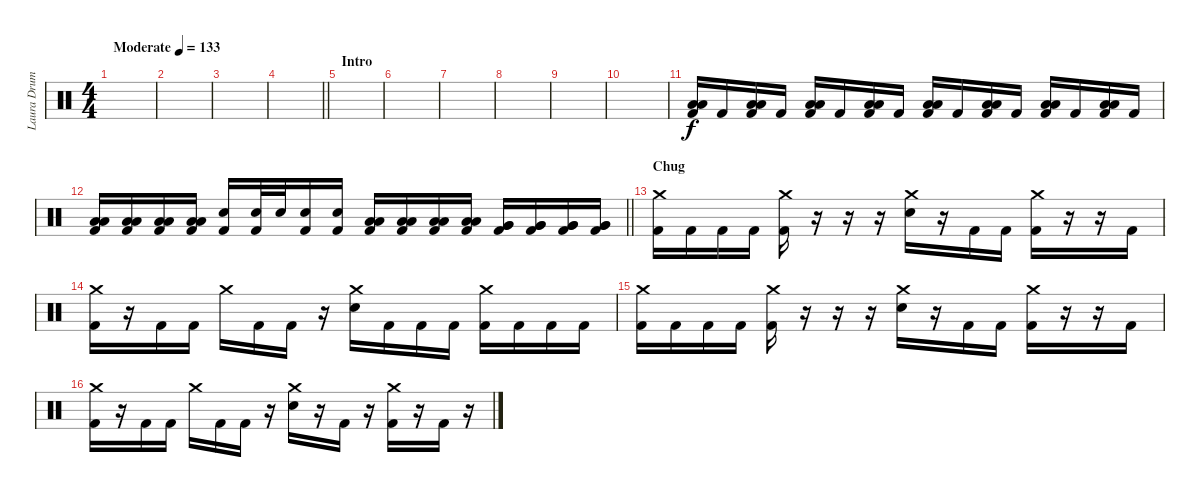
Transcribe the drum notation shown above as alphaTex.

\track ("Laura Drums" "Laura Drum") {instrument percussion}
\staff {score}
\articulation defaults
\ts (4 4)
\tempo (133 "Moderate")
\clef neutral
\ks c
|
|
|
\barLineRight lightlight
|
\section ("" "Intro")
|
|
|
|
|
|
("Low Tom (hit)" "Low Floor Tom (hit)" "Kick (hit) 2").16 "Kick (hit) 2".16 ("Low Tom (hit)" "Low Floor Tom (hit)" "Kick (hit) 2").16 "Kick (hit) 2".16 ("Low Tom (hit)" "Low Floor Tom (hit)" "Kick (hit) 2").16 "Kick (hit) 2".16 ("Low Tom (hit)" "Low Floor Tom (hit)" "Kick (hit) 2").16 "Kick (hit) 2".16 ("Low Tom (hit)" "Low Floor Tom (hit)" "Kick (hit) 2").16 "Kick (hit) 2".16 ("Low Tom (hit)" "Low Floor Tom (hit)" "Kick (hit) 2").16 "Kick (hit) 2".16 ("Low Tom (hit)" "Low Floor Tom (hit)" "Kick (hit) 2").16 "Kick (hit) 2".16 ("Low Tom (hit)" "Low Floor Tom (hit)" "Kick (hit) 2").16 "Kick (hit) 2".16 |
\barLineRight lightlight
("Low Tom (hit)" "Low Tom (hit)" "Kick (hit) 2").16 ("Low Tom (hit)" "Low Tom (hit)" "Kick (hit) 2").16 ("Low Tom (hit)" "Low Tom (hit)" "Kick (hit) 2").16 ("Low Tom (hit)" "Low Tom (hit)" "Kick (hit) 2").16 ("Electric Snare (hit)" "Kick (hit) 2").16 ("Electric Snare (hit)" "Kick (hit) 2").32 "Electric Snare (hit)".32 ("Electric Snare (hit)" "Kick (hit) 2").16 ("Electric Snare (hit)" "Kick (hit) 2").16 ("Low Tom (hit)" "Low Tom (hit)" "Kick (hit) 2").16 ("Low Tom (hit)" "Low Tom (hit)" "Kick (hit) 2").16 ("Low Tom (hit)" "Low Tom (hit)" "Kick (hit) 2").16 ("Low Tom (hit)" "Low Tom (hit)" "Kick (hit) 2").16 ("Very Low Tom (hit)" "Very Low Tom (hit)" "Kick (hit) 2").16 ("Very Low Tom (hit)" "Very Low Tom (hit)" "Kick (hit) 2").16 ("Very Low Tom (hit)" "Very Low Tom (hit)" "Kick (hit) 2").16 ("Very Low Tom (hit)" "Very Low Tom (hit)" "Kick (hit) 2").16 |
\section ("" "Chug")
("Crash medium (hit)" "Kick (hit) 2").16 "Kick (hit) 2".16 "Kick (hit) 2".16 "Kick (hit) 2".16 ("Crash medium (hit)" "Kick (hit) 2").16 r.16 r.16 r.16 ("Crash medium (hit)" "Electric Snare (hit)").16 r.16 "Kick (hit) 2".16 "Kick (hit) 2".16 ("Crash medium (hit)" "Kick (hit) 2").16 r.16 r.16 "Kick (hit) 2".16 |
("Crash medium (hit)" "Kick (hit) 2").16 r.16 "Kick (hit) 2".16 "Kick (hit) 2".16 "Crash medium (hit)".16 "Kick (hit) 2".16 "Kick (hit) 2".16 r.16 ("Crash medium (hit)" "Electric Snare (hit)").16 "Kick (hit) 2".16 "Kick (hit) 2".16 "Kick (hit) 2".16 ("Crash medium (hit)" "Kick (hit) 2").16 "Kick (hit) 2".16 "Kick (hit) 2".16 "Kick (hit) 2".16 |
("Crash medium (hit)" "Kick (hit) 2").16 "Kick (hit) 2".16 "Kick (hit) 2".16 "Kick (hit) 2".16 ("Crash medium (hit)" "Kick (hit) 2").16 r.16 r.16 r.16 ("Crash medium (hit)" "Electric Snare (hit)").16 r.16 "Kick (hit) 2".16 "Kick (hit) 2".16 ("Crash medium (hit)" "Kick (hit) 2").16 r.16 r.16 "Kick (hit) 2".16 |
("Crash medium (hit)" "Kick (hit) 2").16 r.16 "Kick (hit) 2".16 "Kick (hit) 2".16 "Crash medium (hit)".16 "Kick (hit) 2".16 "Kick (hit) 2".16 r.16 ("Crash medium (hit)" "Electric Snare (hit)").16 r.16 "Kick (hit) 2".16 r.16 ("Crash medium (hit)" "Kick (hit) 2").16 r.16 "Kick (hit) 2".16 r.16
